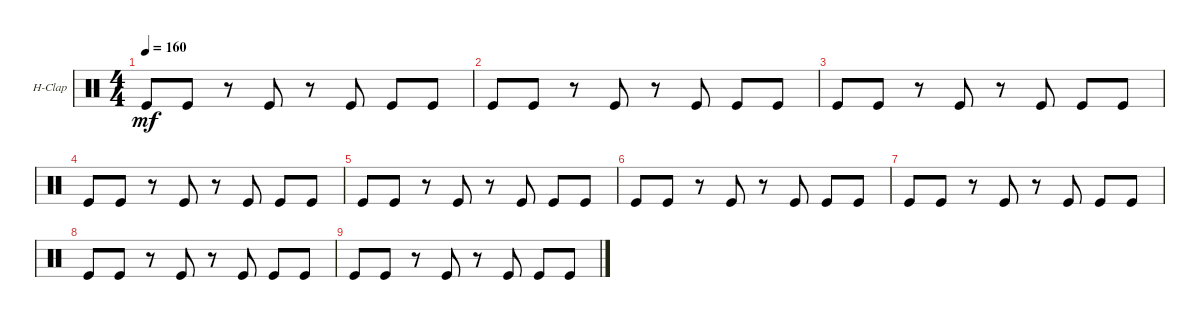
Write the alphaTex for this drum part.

\defaultSystemsLayout 4
\bracketExtendMode groupsimilarinstruments
\firstSystemTrackNameOrientation horizontal
\otherSystemsTrackNameOrientation horizontal
\track ("Hand Clap" "H-Clap") {instrument percussion}
\staff {score}
\articulation defaults
\ts (4 4)
\tempo 160
\clef neutral
\scale
0.333333
\ks c "Kick (hit)".8{dy mf} "Kick (hit)".8
r.8 "Kick (hit)".8 r.8 "Kick (hit)".8 "Kick (hit)".8 "Kick (hit)".8 |
\scale
0.333333 "Kick (hit)".8 "Kick (hit)".8 r.8 "Kick (hit)".8 r.8 "Kick (hit)".8 "Kick (hit)".8 "Kick (hit)".8 |
\scale
0.333333 "Kick (hit)".8 "Kick (hit)".8 r.8 "Kick (hit)".8 r.8 "Kick (hit)".8 "Kick (hit)".8 "Kick (hit)".8 |
\scale
0.333333 "Kick (hit)".8 "Kick (hit)".8 r.8 "Kick (hit)".8 r.8 "Kick (hit)".8 "Kick (hit)".8 "Kick (hit)".8 |
\scale
0.333333 "Kick (hit)".8 "Kick (hit)".8 r.8 "Kick (hit)".8 r.8 "Kick (hit)".8 "Kick (hit)".8 "Kick (hit)".8 |
\scale
0.333333 "Kick (hit)".8 "Kick (hit)".8 r.8 "Kick (hit)".8 r.8 "Kick (hit)".8 "Kick (hit)".8 "Kick (hit)".8 |
\scale
0.333333 "Kick (hit)".8 "Kick (hit)".8 r.8 "Kick (hit)".8 r.8 "Kick (hit)".8 "Kick (hit)".8 "Kick (hit)".8 |
\scale
0.333333 "Kick (hit)".8 "Kick (hit)".8 r.8 "Kick (hit)".8 r.8 "Kick (hit)".8 "Kick (hit)".8 "Kick (hit)".8 |
"Kick (hit)".8 "Kick (hit)".8 r.8 "Kick (hit)".8 r.8 "Kick (hit)".8 "Kick (hit)".8 "Kick (hit)".8
